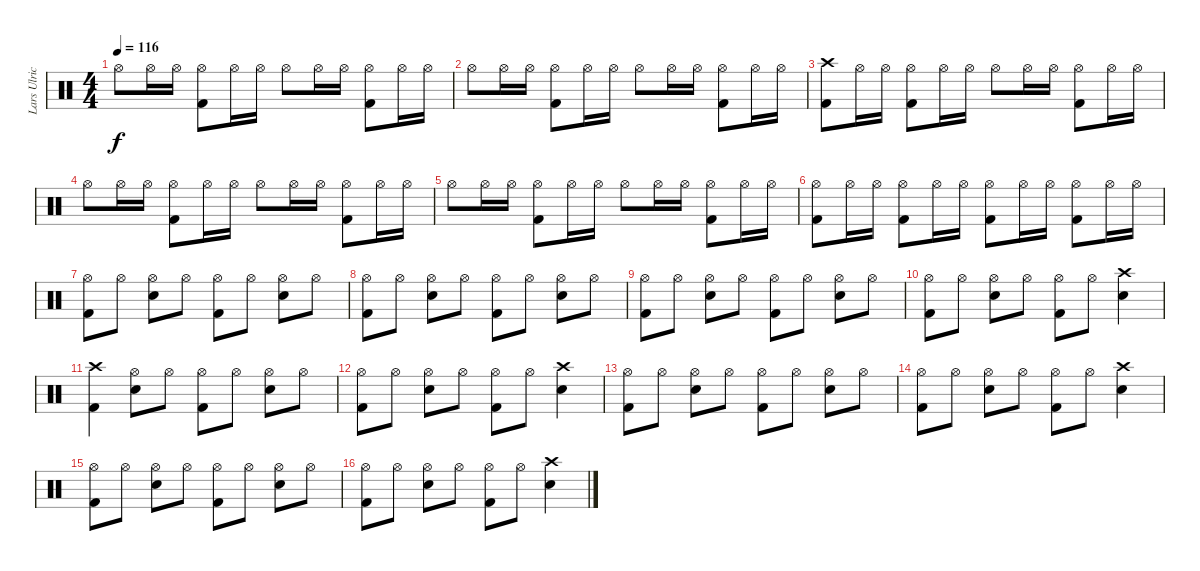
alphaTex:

\track ("Lars Ulrich" "Lars Ulric") {instrument percussion}
\staff {score}
\articulation defaults
\ts (4 4)
\tempo 116
\clef neutral
\ks c "Hi-Hat (open)".8{dy f} "Hi-Hat (open)".16 "Hi-Hat (open)".16
("Hi-Hat (open)" "Kick (hit) 2").8 "Hi-Hat (open)".16 "Hi-Hat (open)".16 "Hi-Hat (open)".8 "Hi-Hat (open)".16 "Hi-Hat (open)".16 ("Hi-Hat (open)" "Kick (hit) 2").8 "Hi-Hat (open)".16 "Hi-Hat (open)".16 |
"Hi-Hat (open)".8 "Hi-Hat (open)".16 "Hi-Hat (open)".16 ("Hi-Hat (open)" "Kick (hit) 2").8 "Hi-Hat (open)".16 "Hi-Hat (open)".16 "Hi-Hat (open)".8 "Hi-Hat (open)".16 "Hi-Hat (open)".16 ("Hi-Hat (open)" "Kick (hit) 2").8 "Hi-Hat (open)".16 "Hi-Hat (open)".16 |
("Crash high (hit)" "Kick (hit) 2").8 "Hi-Hat (open)".16 "Hi-Hat (open)".16 ("Hi-Hat (open)" "Kick (hit) 2").8 "Hi-Hat (open)".16 "Hi-Hat (open)".16 "Hi-Hat (open)".8 "Hi-Hat (open)".16 "Hi-Hat (open)".16 ("Hi-Hat (open)" "Kick (hit) 2").8 "Hi-Hat (open)".16 "Hi-Hat (open)".16 |
"Hi-Hat (open)".8 "Hi-Hat (open)".16 "Hi-Hat (open)".16 ("Hi-Hat (open)" "Kick (hit) 2").8 "Hi-Hat (open)".16 "Hi-Hat (open)".16 "Hi-Hat (open)".8 "Hi-Hat (open)".16 "Hi-Hat (open)".16 ("Hi-Hat (open)" "Kick (hit) 2").8 "Hi-Hat (open)".16 "Hi-Hat (open)".16 |
"Hi-Hat (open)".8 "Hi-Hat (open)".16 "Hi-Hat (open)".16 ("Hi-Hat (open)" "Kick (hit) 2").8 "Hi-Hat (open)".16 "Hi-Hat (open)".16 "Hi-Hat (open)".8 "Hi-Hat (open)".16 "Hi-Hat (open)".16 ("Hi-Hat (open)" "Kick (hit) 2").8 "Hi-Hat (open)".16 "Hi-Hat (open)".16 |
("Hi-Hat (open)" "Kick (hit) 2").8 "Hi-Hat (open)".16 "Hi-Hat (open)".16 ("Hi-Hat (open)" "Kick (hit) 2").8 "Hi-Hat (open)".16 "Hi-Hat (open)".16 ("Hi-Hat (open)" "Kick (hit) 2").8 "Hi-Hat (open)".16 "Hi-Hat (open)".16 ("Hi-Hat (open)" "Kick (hit) 2").8 "Hi-Hat (open)".16 "Hi-Hat (open)".16 |
("Hi-Hat (open)" "Kick (hit) 2").8 "Hi-Hat (open)".8 ("Hi-Hat (open)" "Electric Snare (hit)").8 "Hi-Hat (open)".8 ("Hi-Hat (open)" "Kick (hit) 2").8 "Hi-Hat (open)".8 ("Hi-Hat (open)" "Electric Snare (hit)").8 "Hi-Hat (open)".8 |
("Hi-Hat (open)" "Kick (hit) 2").8 "Hi-Hat (open)".8 ("Hi-Hat (open)" "Electric Snare (hit)").8 "Hi-Hat (open)".8 ("Hi-Hat (open)" "Kick (hit) 2").8 "Hi-Hat (open)".8 ("Hi-Hat (open)" "Electric Snare (hit)").8 "Hi-Hat (open)".8 |
("Hi-Hat (open)" "Kick (hit) 2").8 "Hi-Hat (open)".8 ("Hi-Hat (open)" "Electric Snare (hit)").8 "Hi-Hat (open)".8 ("Hi-Hat (open)" "Kick (hit) 2").8 "Hi-Hat (open)".8 ("Hi-Hat (open)" "Electric Snare (hit)").8 "Hi-Hat (open)".8 |
("Hi-Hat (open)" "Kick (hit) 2").8 "Hi-Hat (open)".8 ("Hi-Hat (open)" "Electric Snare (hit)").8 "Hi-Hat (open)".8 ("Hi-Hat (open)" "Kick (hit) 2").8 "Hi-Hat (open)".8 ("Crash high (hit)" "Electric Snare (hit)").4 |
("Crash high (hit)" "Kick (hit) 2").4 ("Hi-Hat (open)" "Electric Snare (hit)").8 "Hi-Hat (open)".8 ("Hi-Hat (open)" "Kick (hit) 2").8 "Hi-Hat (open)".8 ("Hi-Hat (open)" "Electric Snare (hit)").8 "Hi-Hat (open)".8 |
("Hi-Hat (open)" "Kick (hit) 2").8 "Hi-Hat (open)".8 ("Hi-Hat (open)" "Electric Snare (hit)").8 "Hi-Hat (open)".8 ("Hi-Hat (open)" "Kick (hit) 2").8 "Hi-Hat (open)".8 ("Crash high (hit)" "Electric Snare (hit)").4 |
("Hi-Hat (open)" "Kick (hit) 2").8 "Hi-Hat (open)".8 ("Hi-Hat (open)" "Electric Snare (hit)").8 "Hi-Hat (open)".8 ("Hi-Hat (open)" "Kick (hit) 2").8 "Hi-Hat (open)".8 ("Hi-Hat (open)" "Electric Snare (hit)").8 "Hi-Hat (open)".8 |
("Hi-Hat (open)" "Kick (hit) 2").8 "Hi-Hat (open)".8 ("Hi-Hat (open)" "Electric Snare (hit)").8 "Hi-Hat (open)".8 ("Hi-Hat (open)" "Kick (hit) 2").8 "Hi-Hat (open)".8 ("Crash high (hit)" "Electric Snare (hit)").4 |
("Hi-Hat (open)" "Kick (hit) 2").8 "Hi-Hat (open)".8 ("Hi-Hat (open)" "Electric Snare (hit)").8 "Hi-Hat (open)".8 ("Hi-Hat (open)" "Kick (hit) 2").8 "Hi-Hat (open)".8 ("Hi-Hat (open)" "Electric Snare (hit)").8 "Hi-Hat (open)".8 |
("Hi-Hat (open)" "Kick (hit) 2").8 "Hi-Hat (open)".8 ("Hi-Hat (open)" "Electric Snare (hit)").8 "Hi-Hat (open)".8 ("Hi-Hat (open)" "Kick (hit) 2").8 "Hi-Hat (open)".8 ("Crash high (hit)" "Electric Snare (hit)").4
